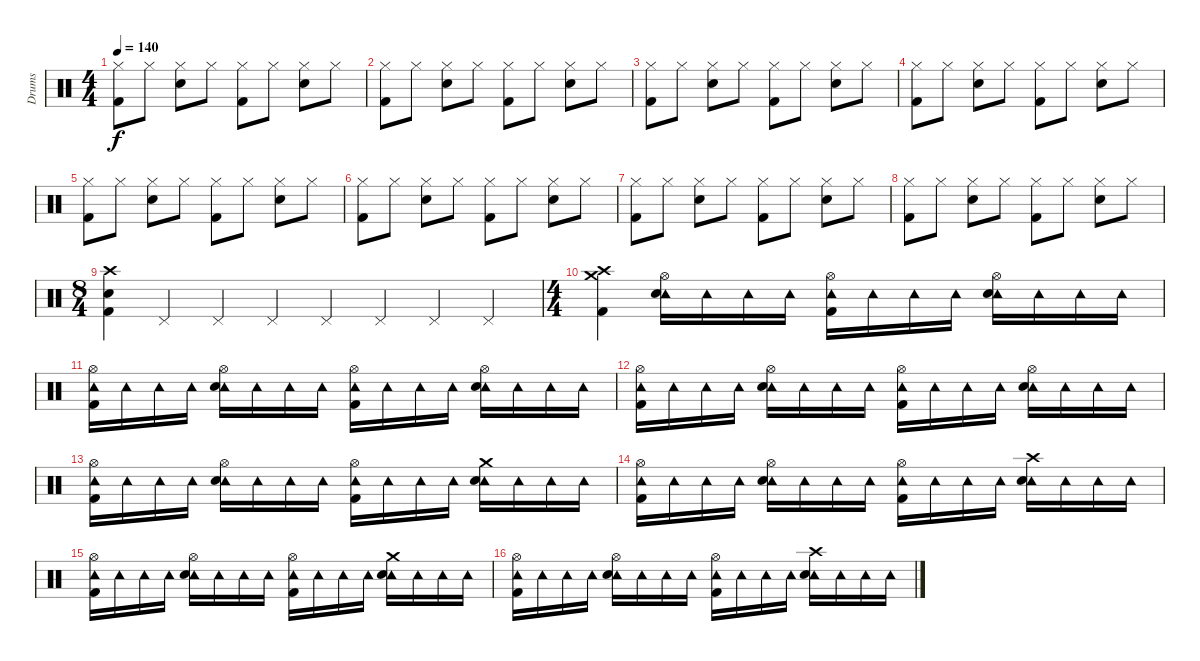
\track ("Drums" "Drums") {instrument percussion}
\staff {score}
\articulation defaults
\ts (4 4)
\tempo 140
\clef neutral
\ks c
("Hi-Hat (closed)" "Kick (hit) 2").8{dy f} "Hi-Hat (closed)".8 ("Hi-Hat (closed)" "Snare (hit) 2").8 "Hi-Hat (closed)".8 ("Hi-Hat (closed)" "Kick (hit) 2").8 "Hi-Hat (closed)".8 ("Hi-Hat (closed)" "Snare (hit) 2").8 "Hi-Hat (closed)".8 |
("Hi-Hat (closed)" "Kick (hit) 2").8 "Hi-Hat (closed)".8 ("Hi-Hat (closed)" "Snare (hit) 2").8 "Hi-Hat (closed)".8 ("Hi-Hat (closed)" "Kick (hit) 2").8 "Hi-Hat (closed)".8 ("Hi-Hat (closed)" "Snare (hit) 2").8 "Hi-Hat (closed)".8 |
("Hi-Hat (closed)" "Kick (hit) 2").8 "Hi-Hat (closed)".8 ("Hi-Hat (closed)" "Snare (hit) 2").8 "Hi-Hat (closed)".8 ("Hi-Hat (closed)" "Kick (hit) 2").8 "Hi-Hat (closed)".8 ("Hi-Hat (closed)" "Snare (hit) 2").8 "Hi-Hat (closed)".8 |
("Hi-Hat (closed)" "Kick (hit) 2").8 "Hi-Hat (closed)".8 ("Hi-Hat (closed)" "Snare (hit) 2").8 "Hi-Hat (closed)".8 ("Hi-Hat (closed)" "Kick (hit) 2").8 "Hi-Hat (closed)".8 ("Hi-Hat (closed)" "Snare (hit) 2").8 "Hi-Hat (closed)".8 |
("Hi-Hat (closed)" "Kick (hit) 2").8 "Hi-Hat (closed)".8 ("Hi-Hat (closed)" "Snare (hit) 2").8 "Hi-Hat (closed)".8 ("Hi-Hat (closed)" "Kick (hit) 2").8 "Hi-Hat (closed)".8 ("Hi-Hat (closed)" "Snare (hit) 2").8 "Hi-Hat (closed)".8 |
("Hi-Hat (closed)" "Kick (hit) 2").8 "Hi-Hat (closed)".8 ("Hi-Hat (closed)" "Snare (hit) 2").8 "Hi-Hat (closed)".8 ("Hi-Hat (closed)" "Kick (hit) 2").8 "Hi-Hat (closed)".8 ("Hi-Hat (closed)" "Snare (hit) 2").8 "Hi-Hat (closed)".8 |
("Hi-Hat (closed)" "Kick (hit) 2").8 "Hi-Hat (closed)".8 ("Hi-Hat (closed)" "Snare (hit) 2").8 "Hi-Hat (closed)".8 ("Hi-Hat (closed)" "Kick (hit) 2").8 "Hi-Hat (closed)".8 ("Hi-Hat (closed)" "Snare (hit) 2").8 "Hi-Hat (closed)".8 |
("Hi-Hat (closed)" "Kick (hit) 2").8 "Hi-Hat (closed)".8 ("Hi-Hat (closed)" "Snare (hit) 2").8 "Hi-Hat (closed)".8 ("Hi-Hat (closed)" "Kick (hit) 2").8 "Hi-Hat (closed)".8 ("Hi-Hat (closed)" "Snare (hit) 2").8 "Hi-Hat (closed)".8 |
\ts (8 4)
("Crash high (hit)" "Snare (hit) 2" "Kick (hit) 2").4 "Pedal Hi-Hat (hit)".4 "Pedal Hi-Hat (hit)".4 "Pedal Hi-Hat (hit)".4 "Pedal Hi-Hat (hit)".4 "Pedal Hi-Hat (hit)".4 "Pedal Hi-Hat (hit)".4 "Pedal Hi-Hat (hit)".4 |
\ts (4 4)
("Crash medium (hit)" "Crash high (hit)" "Kick (hit) 2").4 ("Tambourine (hit)" "Hi-Hat (open)" "Snare (hit) 2").16 "Tambourine (hit)".16 "Tambourine (hit)".16 "Tambourine (hit)".16 ("Tambourine (hit)" "Hi-Hat (open)" "Kick (hit) 2").16 "Tambourine (hit)".16 "Tambourine (hit)".16 "Tambourine (hit)".16 ("Tambourine (hit)" "Hi-Hat (open)" "Snare (hit) 2").16 "Tambourine (hit)".16 "Tambourine (hit)".16 "Tambourine (hit)".16 |
("Tambourine (hit)" "Hi-Hat (open)" "Kick (hit) 2").16 "Tambourine (hit)".16 "Tambourine (hit)".16 "Tambourine (hit)".16 ("Tambourine (hit)" "Hi-Hat (open)" "Snare (hit) 2").16 "Tambourine (hit)".16 "Tambourine (hit)".16 "Tambourine (hit)".16 ("Tambourine (hit)" "Hi-Hat (open)" "Kick (hit) 2").16 "Tambourine (hit)".16 "Tambourine (hit)".16 "Tambourine (hit)".16 ("Tambourine (hit)" "Hi-Hat (open)" "Snare (hit) 2").16 "Tambourine (hit)".16 "Tambourine (hit)".16 "Tambourine (hit)".16 |
("Tambourine (hit)" "Hi-Hat (open)" "Kick (hit) 2").16 "Tambourine (hit)".16 "Tambourine (hit)".16 "Tambourine (hit)".16 ("Tambourine (hit)" "Hi-Hat (open)" "Snare (hit) 2").16 "Tambourine (hit)".16 "Tambourine (hit)".16 "Tambourine (hit)".16 ("Tambourine (hit)" "Hi-Hat (open)" "Kick (hit) 2").16 "Tambourine (hit)".16 "Tambourine (hit)".16 "Tambourine (hit)".16 ("Tambourine (hit)" "Hi-Hat (open)" "Snare (hit) 2").16 "Tambourine (hit)".16 "Tambourine (hit)".16 "Tambourine (hit)".16 |
("Tambourine (hit)" "Hi-Hat (open)" "Kick (hit) 2").16 "Tambourine (hit)".16 "Tambourine (hit)".16 "Tambourine (hit)".16 ("Tambourine (hit)" "Hi-Hat (open)" "Snare (hit) 2").16 "Tambourine (hit)".16 "Tambourine (hit)".16 "Tambourine (hit)".16 ("Tambourine (hit)" "Hi-Hat (open)" "Kick (hit) 2").16 "Tambourine (hit)".16 "Tambourine (hit)".16 "Tambourine (hit)".16 ("Tambourine (hit)" "Crash medium (hit)" "Snare (hit) 2").16 "Tambourine (hit)".16 "Tambourine (hit)".16 "Tambourine (hit)".16 |
("Tambourine (hit)" "Hi-Hat (open)" "Kick (hit) 2").16 "Tambourine (hit)".16 "Tambourine (hit)".16 "Tambourine (hit)".16 ("Tambourine (hit)" "Hi-Hat (open)" "Snare (hit) 2").16 "Tambourine (hit)".16 "Tambourine (hit)".16 "Tambourine (hit)".16 ("Tambourine (hit)" "Hi-Hat (open)" "Kick (hit) 2").16 "Tambourine (hit)".16 "Tambourine (hit)".16 "Tambourine (hit)".16 ("Tambourine (hit)" "Crash high (hit)" "Snare (hit) 2").16 "Tambourine (hit)".16 "Tambourine (hit)".16 "Tambourine (hit)".16 |
("Tambourine (hit)" "Hi-Hat (open)" "Kick (hit) 2").16 "Tambourine (hit)".16 "Tambourine (hit)".16 "Tambourine (hit)".16 ("Tambourine (hit)" "Hi-Hat (open)" "Snare (hit) 2").16 "Tambourine (hit)".16 "Tambourine (hit)".16 "Tambourine (hit)".16 ("Tambourine (hit)" "Hi-Hat (open)" "Kick (hit) 2").16 "Tambourine (hit)".16 "Tambourine (hit)".16 "Tambourine (hit)".16 ("Tambourine (hit)" "Crash medium (hit)" "Snare (hit) 2").16 "Tambourine (hit)".16 "Tambourine (hit)".16 "Tambourine (hit)".16 |
("Tambourine (hit)" "Hi-Hat (open)" "Kick (hit) 2").16 "Tambourine (hit)".16 "Tambourine (hit)".16 "Tambourine (hit)".16 ("Tambourine (hit)" "Hi-Hat (open)" "Snare (hit) 2").16 "Tambourine (hit)".16 "Tambourine (hit)".16 "Tambourine (hit)".16 ("Tambourine (hit)" "Hi-Hat (open)" "Kick (hit) 2").16 "Tambourine (hit)".16 "Tambourine (hit)".16 "Tambourine (hit)".16 ("Tambourine (hit)" "Crash high (hit)" "Snare (hit) 2").16 "Tambourine (hit)".16 "Tambourine (hit)".16 "Tambourine (hit)".16
